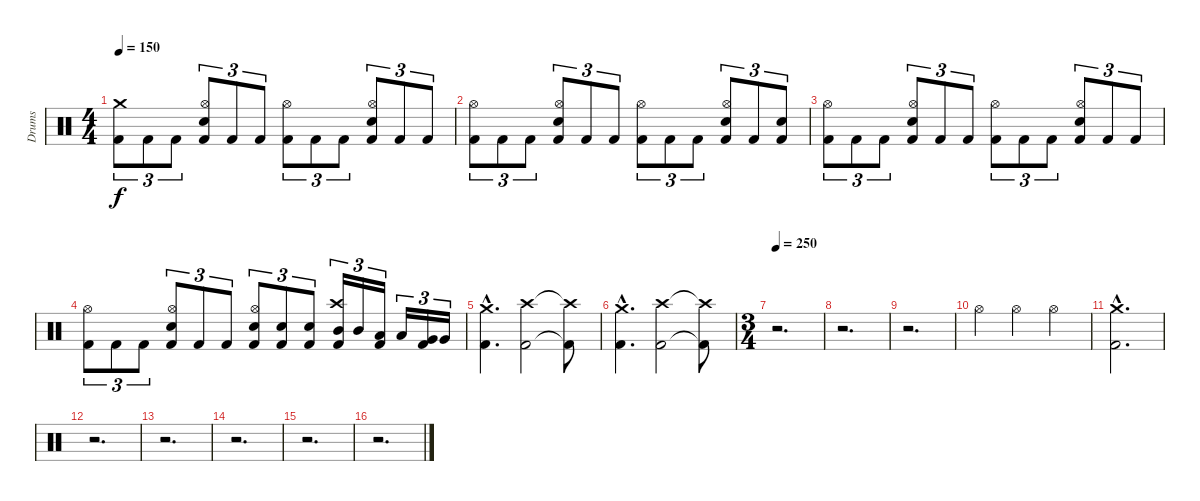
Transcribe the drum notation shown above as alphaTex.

\track ("Drums" "Drums") {instrument percussion}
\staff {score}
\articulation defaults
\ts (4 4)
\tempo 150
\clef neutral
\ks c
("Crash medium (hit)" "Kick (hit) 2").8{tu (3 2) dy f} "Kick (hit) 2".8{tu (3 2)} "Kick (hit) 2".8{tu (3 2)} ("Kick (hit) 2" "Hi-Hat (open)" "Snare (hit) 2").8{tu (3 2)} "Kick (hit) 2".8{tu (3 2)} "Kick (hit) 2".8{tu (3 2)} ("Hi-Hat (open)" "Kick (hit) 2").8{tu (3 2)} "Kick (hit) 2".8{tu (3 2)} "Kick (hit) 2".8{tu (3 2)} ("Kick (hit) 2" "Hi-Hat (open)" "Snare (hit) 2").8{tu (3 2)} "Kick (hit) 2".8{tu (3 2)} "Kick (hit) 2".8{tu (3 2)} |
("Hi-Hat (open)" "Kick (hit) 2").8{tu (3 2)} "Kick (hit) 2".8{tu (3 2)} "Kick (hit) 2".8{tu (3 2)} ("Kick (hit) 2" "Hi-Hat (open)" "Snare (hit) 2").8{tu (3 2)} "Kick (hit) 2".8{tu (3 2)} "Kick (hit) 2".8{tu (3 2)} ("Hi-Hat (open)" "Kick (hit) 2").8{tu (3 2)} "Kick (hit) 2".8{tu (3 2)} "Kick (hit) 2".8{tu (3 2)} ("Kick (hit) 2" "Hi-Hat (open)" "Snare (hit) 2").8{tu (3 2)} "Kick (hit) 2".8{tu (3 2)} ("Kick (hit) 2" "Snare (hit) 2").8{tu (3 2)} |
("Hi-Hat (open)" "Kick (hit) 2").8{tu (3 2)} "Kick (hit) 2".8{tu (3 2)} "Kick (hit) 2".8{tu (3 2)} ("Kick (hit) 2" "Hi-Hat (open)" "Snare (hit) 2").8{tu (3 2)} "Kick (hit) 2".8{tu (3 2)} "Kick (hit) 2".8{tu (3 2)} ("Hi-Hat (open)" "Kick (hit) 2").8{tu (3 2)} "Kick (hit) 2".8{tu (3 2)} "Kick (hit) 2".8{tu (3 2)} ("Kick (hit) 2" "Hi-Hat (open)" "Snare (hit) 2").8{tu (3 2)} "Kick (hit) 2".8{tu (3 2)} "Kick (hit) 2".8{tu (3 2)} |
("Hi-Hat (open)" "Kick (hit) 2").8{tu (3 2)} "Kick (hit) 2".8{tu (3 2)} "Kick (hit) 2".8{tu (3 2)} ("Kick (hit) 2" "Hi-Hat (open)" "Snare (hit) 2").8{tu (3 2)} "Kick (hit) 2".8{tu (3 2)} "Kick (hit) 2".8{tu (3 2)} ("Kick (hit) 2" "Hi-Hat (open)" "Snare (hit) 2").8{tu (3 2)} ("Kick (hit) 2" "Snare (hit) 2").8{tu (3 2)} ("Kick (hit) 2" "Snare (hit) 2").8{tu (3 2)} ("Kick (hit) 2" "Crash high (hit)" "Mid Tom (hit)").16{tu (3 2)} "Mid Tom (hit)".16{tu (3 2)} ("Kick (hit) 2" "Low Tom (hit)").16{tu (3 2)} "Low Tom (hit)".16{tu (3 2)} ("Kick (hit) 2" "Very Low Tom (hit)").16{tu (3 2)} "Very Low Tom (hit)".16{tu (3 2)} |
("Crash medium (hit)"{hac} "Kick (hit) 2"{hac}).4{d} ("Crash high (hit)" "Kick (hit) 2").2 ("Crash high (hit)"{t} "Kick (hit) 2"{t}).8 |
("Crash medium (hit)"{hac} "Kick (hit) 2"{hac}).4{d} ("Crash high (hit)" "Kick (hit) 2").2 ("Crash high (hit)"{t} "Kick (hit) 2"{t}).8 |
\ts (3 4)
\tempo 250
r.2{d} |
r.2{d} |
r.2{d} |
"Hi-Hat (open)".4 "Hi-Hat (open)".4 "Hi-Hat (open)".4 |
("Crash medium (hit)"{hac} "Kick (hit) 2"{hac}).2{d} |
r.2{d} |
r.2{d} |
r.2{d} |
r.2{d} |
r.2{d}
